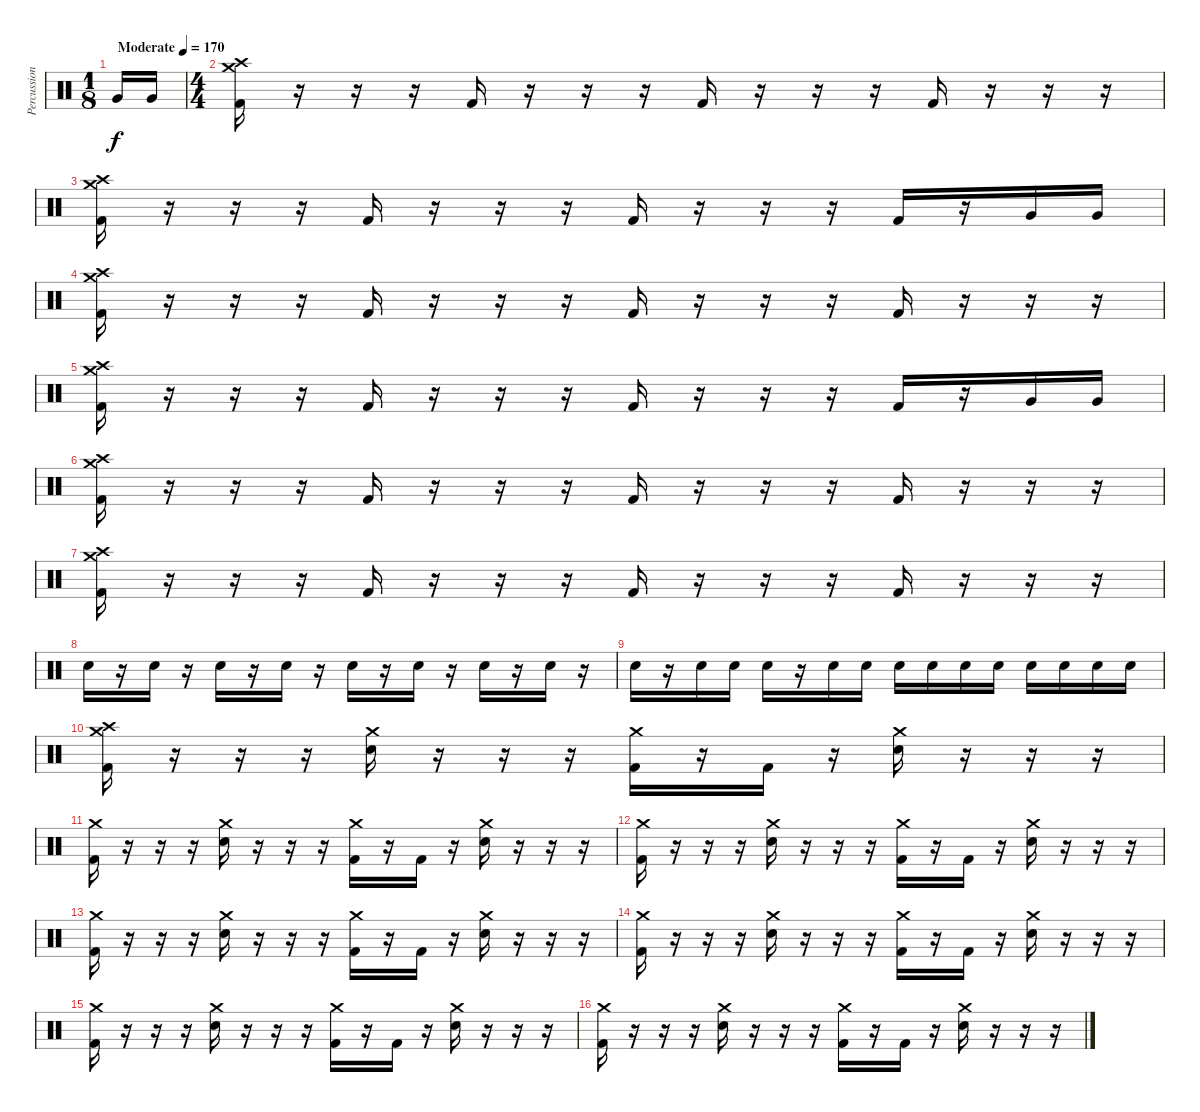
\track ("Percussion" "Percussion") {instrument percussion}
\staff {score}
\articulation defaults
\ts (1 8)
\tempo (170 "Moderate")
\clef neutral
\ks c "Very Low Tom (hit)".16{dy f} "Very Low Tom (hit)".16
|
\ts (4 4)
("Crash high (hit)" "Crash medium (hit)" "Kick (hit) 2").16 r.16 r.16 r.16 "Kick (hit) 2".16 r.16 r.16 r.16 "Kick (hit) 2".16 r.16 r.16 r.16 "Kick (hit) 2".16 r.16 r.16 r.16 |
("Crash high (hit)" "Crash medium (hit)" "Kick (hit) 2").16 r.16 r.16 r.16 "Kick (hit) 2".16 r.16 r.16 r.16 "Kick (hit) 2".16 r.16 r.16 r.16 "Kick (hit) 2".16 r.16 "Very Low Tom (hit)".16 "Very Low Tom (hit)".16 |
("Crash high (hit)" "Crash medium (hit)" "Kick (hit) 2").16 r.16 r.16 r.16 "Kick (hit) 2".16 r.16 r.16 r.16 "Kick (hit) 2".16 r.16 r.16 r.16 "Kick (hit) 2".16 r.16 r.16 r.16 |
("Crash high (hit)" "Crash medium (hit)" "Kick (hit) 2").16 r.16 r.16 r.16 "Kick (hit) 2".16 r.16 r.16 r.16 "Kick (hit) 2".16 r.16 r.16 r.16 "Kick (hit) 2".16 r.16 "Very Low Tom (hit)".16 "Very Low Tom (hit)".16 |
("Crash high (hit)" "Crash medium (hit)" "Kick (hit) 2").16 r.16 r.16 r.16 "Kick (hit) 2".16 r.16 r.16 r.16 "Kick (hit) 2".16 r.16 r.16 r.16 "Kick (hit) 2".16 r.16 r.16 r.16 |
("Crash high (hit)" "Crash medium (hit)" "Kick (hit) 2").16 r.16 r.16 r.16 "Kick (hit) 2".16 r.16 r.16 r.16 "Kick (hit) 2".16 r.16 r.16 r.16 "Kick (hit) 2".16 r.16 r.16 r.16 |
"Snare (hit) 2".16 r.16 "Snare (hit) 2".16 r.16 "Snare (hit) 2".16 r.16 "Snare (hit) 2".16 r.16 "Electric Snare (hit)".16 r.16 "Electric Snare (hit)".16 r.16 "Electric Snare (hit)".16 r.16 "Electric Snare (hit)".16 r.16 |
"Electric Snare (hit)".16 r.16 "Electric Snare (hit)".16 "Electric Snare (hit)".16 "Electric Snare (hit)".16 r.16 "Electric Snare (hit)".16 "Electric Snare (hit)".16 "Electric Snare (hit)".16 "Electric Snare (hit)".16 "Electric Snare (hit)".16 "Electric Snare (hit)".16 "Electric Snare (hit)".16 "Electric Snare (hit)".16 "Electric Snare (hit)".16 "Electric Snare (hit)".16 |
("Crash medium (hit)" "Crash high (hit)" "Kick (hit) 2").16 r.16 r.16 r.16 ("Crash medium (hit)" "Electric Snare (hit)").16 r.16 r.16 r.16 ("Crash medium (hit)" "Kick (hit) 2").16 r.16 "Kick (hit) 2".16 r.16 ("Crash medium (hit)" "Electric Snare (hit)").16 r.16 r.16 r.16 |
("Crash medium (hit)" "Kick (hit) 2").16 r.16 r.16 r.16 ("Crash medium (hit)" "Electric Snare (hit)").16 r.16 r.16 r.16 ("Crash medium (hit)" "Kick (hit) 2").16 r.16 "Kick (hit) 2".16 r.16 ("Crash medium (hit)" "Electric Snare (hit)").16 r.16 r.16 r.16 |
("Crash medium (hit)" "Kick (hit) 2").16 r.16 r.16 r.16 ("Crash medium (hit)" "Electric Snare (hit)").16 r.16 r.16 r.16 ("Crash medium (hit)" "Kick (hit) 2").16 r.16 "Kick (hit) 2".16 r.16 ("Crash medium (hit)" "Electric Snare (hit)").16 r.16 r.16 r.16 |
("Crash medium (hit)" "Kick (hit) 2").16 r.16 r.16 r.16 ("Crash medium (hit)" "Electric Snare (hit)").16 r.16 r.16 r.16 ("Crash medium (hit)" "Kick (hit) 2").16 r.16 "Kick (hit) 2".16 r.16 ("Crash medium (hit)" "Electric Snare (hit)").16 r.16 r.16 r.16 |
("Crash medium (hit)" "Kick (hit) 2").16 r.16 r.16 r.16 ("Crash medium (hit)" "Electric Snare (hit)").16 r.16 r.16 r.16 ("Crash medium (hit)" "Kick (hit) 2").16 r.16 "Kick (hit) 2".16 r.16 ("Crash medium (hit)" "Electric Snare (hit)").16 r.16 r.16 r.16 |
("Crash medium (hit)" "Kick (hit) 2").16 r.16 r.16 r.16 ("Crash medium (hit)" "Electric Snare (hit)").16 r.16 r.16 r.16 ("Crash medium (hit)" "Kick (hit) 2").16 r.16 "Kick (hit) 2".16 r.16 ("Crash medium (hit)" "Electric Snare (hit)").16 r.16 r.16 r.16 |
("Crash medium (hit)" "Kick (hit) 2").16 r.16 r.16 r.16 ("Crash medium (hit)" "Electric Snare (hit)").16 r.16 r.16 r.16 ("Crash medium (hit)" "Kick (hit) 2").16 r.16 "Kick (hit) 2".16 r.16 ("Crash medium (hit)" "Electric Snare (hit)").16 r.16 r.16 r.16
